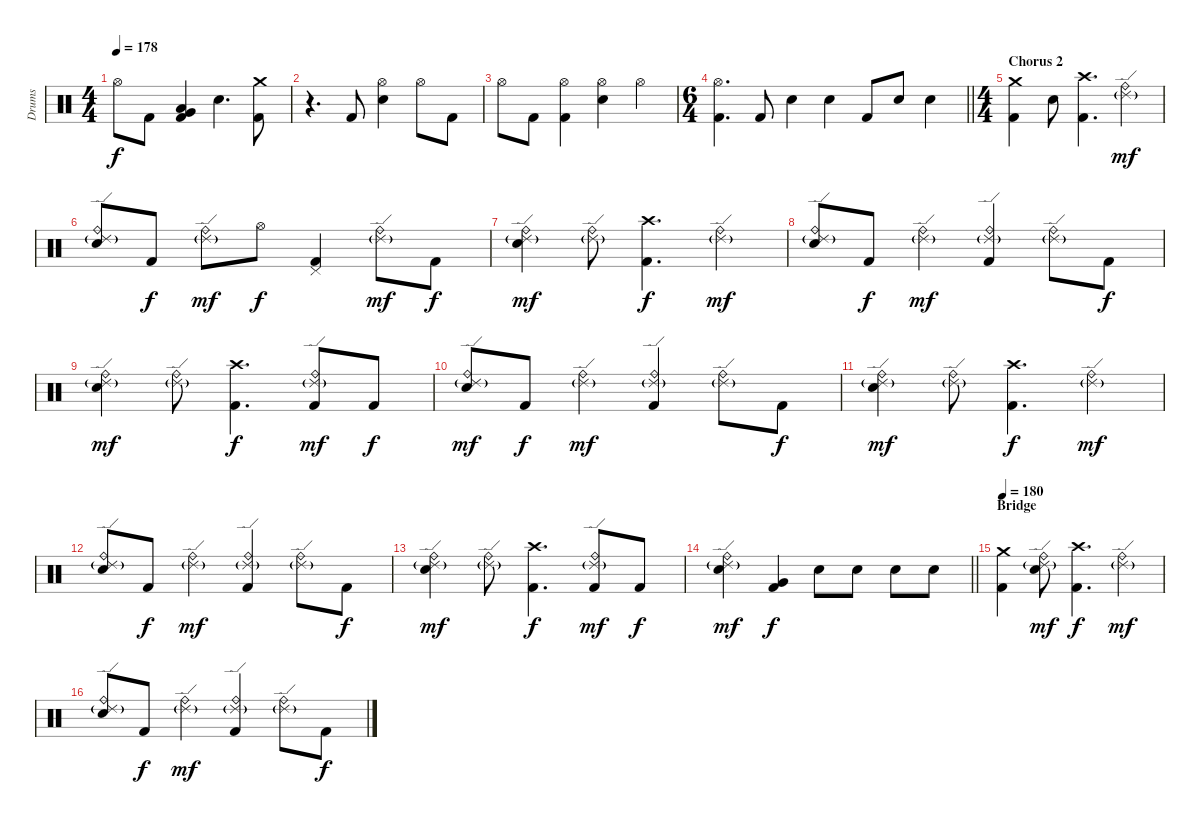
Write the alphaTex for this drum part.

\track ("Drums" "Drums") {instrument percussion}
\staff {score}
\articulation defaults
\ts (4 4)
\tempo 178
\clef neutral
\ks c "Hi-Hat (open)".8{dy f} "Kick (hit) 2".8
("Very Low Tom (hit)" "Low Tom (hit)" "Kick (hit) 2").4 "Electric Snare (hit)".4{d} ("Crash medium (hit)" "Kick (hit) 2").8 |
r.4{d} "Kick (hit) 2".8 ("Hi-Hat (open)" "Electric Snare (hit)").4 "Hi-Hat (open)".8 "Kick (hit) 2".8 |
"Hi-Hat (open)".8 "Kick (hit) 2".8 ("Hi-Hat (open)" "Kick (hit) 2").4 ("Hi-Hat (open)" "Electric Snare (hit)").4 "Hi-Hat (open)".4 |
\ts (6 4)
\barLineRight lightlight
("Hi-Hat (open)" "Kick (hit) 2").4{d} "Kick (hit) 2".8 "Electric Snare (hit)".4 "Electric Snare (hit)".4 "Kick (hit) 2".8 "Electric Snare (hit)".8 "Electric Snare (hit)".4 |
\ts (4 4)
\section ("" "Chorus 2")
("Crash medium (hit)" "Kick (hit) 2").4 "Electric Snare (hit)".8 ("Crash high (hit)" "Kick (hit) 2").4{d} ("Ride (bell)" "Ride (edge) 2"{g}).4{dy mf} |
("Ride (bell)" "Ride (edge) 2"{g} "Electric Snare (hit)").8 "Kick (hit) 2".8{dy f} ("Ride (bell)" "Ride (edge) 2"{g}).8{dy mf} "Hi-Hat (open)".8{dy f} ("Pedal Hi-Hat (hit)" "Kick (hit) 2").4 ("Ride (bell)" "Ride (edge) 2"{g}).8{dy mf} "Kick (hit) 2".8{dy f} |
("Ride (bell)" "Ride (edge) 2"{g} "Electric Snare (hit)").4{dy mf} ("Ride (bell)" "Ride (edge) 2"{g}).8 ("Crash high (hit)" "Kick (hit) 2").4{d dy f} ("Ride (bell)" "Ride (edge) 2"{g}).4{dy mf} |
("Ride (bell)" "Ride (edge) 2"{g} "Electric Snare (hit)").8 "Kick (hit) 2".8{dy f} ("Ride (bell)" "Ride (edge) 2"{g}).4{dy mf} ("Ride (bell)" "Ride (edge) 2"{g} "Kick (hit) 2").4 ("Ride (bell)" "Ride (edge) 2"{g}).8 "Kick (hit) 2".8{dy f} |
("Ride (bell)" "Ride (edge) 2"{g} "Electric Snare (hit)").4{dy mf} ("Ride (bell)" "Ride (edge) 2"{g}).8 ("Crash high (hit)" "Kick (hit) 2").4{d dy f} ("Ride (bell)" "Ride (edge) 2"{g} "Kick (hit) 2").8{dy mf} "Kick (hit) 2".8{dy f} |
("Ride (bell)" "Ride (edge) 2"{g} "Electric Snare (hit)").8{dy mf} "Kick (hit) 2".8{dy f} ("Ride (bell)" "Ride (edge) 2"{g}).4{dy mf} ("Ride (bell)" "Ride (edge) 2"{g} "Kick (hit) 2").4 ("Ride (bell)" "Ride (edge) 2"{g}).8 "Kick (hit) 2".8{dy f} |
("Ride (bell)" "Ride (edge) 2"{g} "Electric Snare (hit)").4{dy mf} ("Ride (bell)" "Ride (edge) 2"{g}).8 ("Crash high (hit)" "Kick (hit) 2").4{d dy f} ("Ride (bell)" "Ride (edge) 2"{g}).4{dy mf} |
("Ride (bell)" "Ride (edge) 2"{g} "Electric Snare (hit)").8 "Kick (hit) 2".8{dy f} ("Ride (bell)" "Ride (edge) 2"{g}).4{dy mf} ("Ride (bell)" "Ride (edge) 2"{g} "Kick (hit) 2").4 ("Ride (bell)" "Ride (edge) 2"{g}).8 "Kick (hit) 2".8{dy f} |
("Ride (bell)" "Ride (edge) 2"{g} "Electric Snare (hit)").4{dy mf} ("Ride (bell)" "Ride (edge) 2"{g}).8 ("Crash high (hit)" "Kick (hit) 2").4{d dy f} ("Ride (bell)" "Ride (edge) 2"{g} "Kick (hit) 2").8{dy mf} "Kick (hit) 2".8{dy f} |
\barLineRight lightlight
("Ride (bell)" "Ride (edge) 2"{g} "Electric Snare (hit)").4{dy mf} ("Very Low Tom (hit)" "Kick (hit) 2").4{dy f} "Electric Snare (hit)".8 "Electric Snare (hit)".8 "Electric Snare (hit)".8 "Electric Snare (hit)".8 |
\section ("" "Bridge")
\tempo 180
("Crash medium (hit)" "Kick (hit) 2").4 ("Ride (bell)" "Ride (edge) 2"{g} "Electric Snare (hit)").8{dy mf} ("Crash high (hit)" "Kick (hit) 2").4{d dy f} ("Ride (bell)" "Ride (edge) 2"{g}).4{dy mf} |
("Ride (bell)" "Ride (edge) 2"{g} "Electric Snare (hit)").8 "Kick (hit) 2".8{dy f} ("Ride (bell)" "Ride (edge) 2"{g}).4{dy mf} ("Ride (bell)" "Ride (edge) 2"{g} "Kick (hit) 2").4 ("Ride (bell)" "Ride (edge) 2"{g}).8 "Kick (hit) 2".8{dy f}
